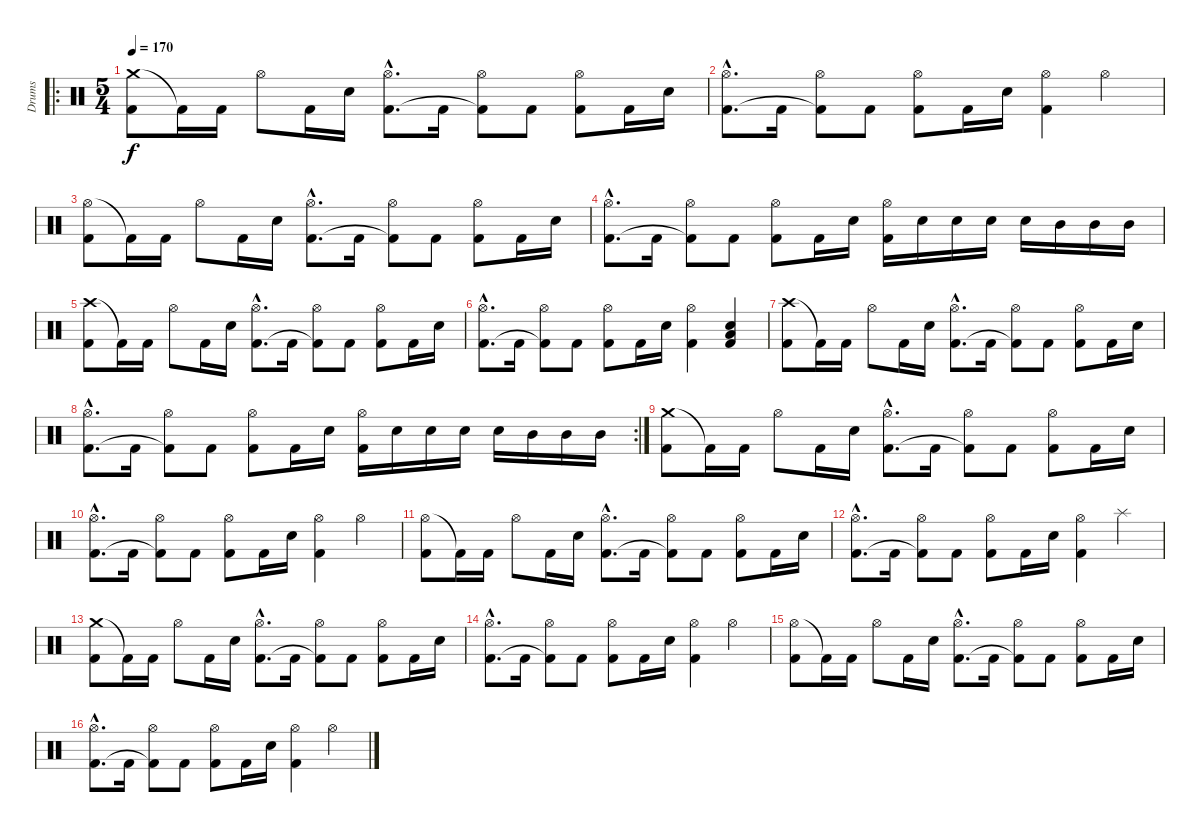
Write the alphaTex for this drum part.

\track ("Drums" "Drums") {instrument percussion}
\staff {score}
\articulation defaults
\ro
\ts (5 4)
\tempo 170
\clef neutral
\ks c
("Crash medium (hit)" "Kick (hit) 2").8{dy f} "Kick (hit) 2"{t}.16 "Kick (hit) 2".16 "Hi-Hat (open)".8 "Kick (hit) 2".16 "Electric Snare (hit)".16 ("Hi-Hat (open)"{hac} "Kick (hit) 2"{hac}).8{d} "Kick (hit) 2".16 ("Hi-Hat (open)" "Kick (hit) 2"{t}).8 "Kick (hit) 2".8 ("Hi-Hat (open)" "Kick (hit) 2").8 "Kick (hit) 2".16 "Electric Snare (hit)".16 |
("Hi-Hat (open)"{hac} "Kick (hit) 2"{hac}).8{d} "Kick (hit) 2".16 ("Hi-Hat (open)" "Kick (hit) 2"{t}).8 "Kick (hit) 2".8 ("Hi-Hat (open)" "Kick (hit) 2").8 "Kick (hit) 2".16 "Electric Snare (hit)".16 ("Hi-Hat (open)" "Kick (hit) 2").4 "Hi-Hat (open)".4 |
("Hi-Hat (open)" "Kick (hit) 2").8 "Kick (hit) 2"{t}.16 "Kick (hit) 2".16 "Hi-Hat (open)".8 "Kick (hit) 2".16 "Electric Snare (hit)".16 ("Hi-Hat (open)"{hac} "Kick (hit) 2"{hac}).8{d} "Kick (hit) 2".16 ("Hi-Hat (open)" "Kick (hit) 2"{t}).8 "Kick (hit) 2".8 ("Hi-Hat (open)" "Kick (hit) 2").8 "Kick (hit) 2".16 "Electric Snare (hit)".16 |
("Hi-Hat (open)"{hac} "Kick (hit) 2"{hac}).8{d} "Kick (hit) 2".16 ("Hi-Hat (open)" "Kick (hit) 2"{t}).8 "Kick (hit) 2".8 ("Hi-Hat (open)" "Kick (hit) 2").8 "Kick (hit) 2".16 "Electric Snare (hit)".16 ("Hi-Hat (open)" "Kick (hit) 2").16 "Electric Snare (hit)".16 "Electric Snare (hit)".16 "Electric Snare (hit)".16 "Electric Snare (hit)".16 "Mid Tom (hit)".16 "Mid Tom (hit)".16 "Mid Tom (hit)".16 |
("Crash high (hit)" "Kick (hit) 2").8 "Kick (hit) 2"{t}.16 "Kick (hit) 2".16 "Hi-Hat (open)".8 "Kick (hit) 2".16 "Electric Snare (hit)".16 ("Hi-Hat (open)"{hac} "Kick (hit) 2"{hac}).8{d} "Kick (hit) 2".16 ("Hi-Hat (open)" "Kick (hit) 2"{t}).8 "Kick (hit) 2".8 ("Hi-Hat (open)" "Kick (hit) 2").8 "Kick (hit) 2".16 "Electric Snare (hit)".16 |
("Hi-Hat (open)"{hac} "Kick (hit) 2"{hac}).8{d} "Kick (hit) 2".16 ("Hi-Hat (open)" "Kick (hit) 2"{t}).8 "Kick (hit) 2".8 ("Hi-Hat (open)" "Kick (hit) 2").8 "Kick (hit) 2".16 "Electric Snare (hit)".16 ("Hi-Hat (open)" "Kick (hit) 2").4 ("Low Floor Tom (hit)" "Electric Snare (hit)" "Kick (hit) 2").4 |
("Crash high (hit)" "Kick (hit) 2").8 "Kick (hit) 2"{t}.16 "Kick (hit) 2".16 "Hi-Hat (open)".8 "Kick (hit) 2".16 "Electric Snare (hit)".16 ("Hi-Hat (open)"{hac} "Kick (hit) 2"{hac}).8{d} "Kick (hit) 2".16 ("Hi-Hat (open)" "Kick (hit) 2"{t}).8 "Kick (hit) 2".8 ("Hi-Hat (open)" "Kick (hit) 2").8 "Kick (hit) 2".16 "Electric Snare (hit)".16 |
\rc 2
("Hi-Hat (open)"{hac} "Kick (hit) 2"{hac}).8{d} "Kick (hit) 2".16 ("Hi-Hat (open)" "Kick (hit) 2"{t}).8 "Kick (hit) 2".8 ("Hi-Hat (open)" "Kick (hit) 2").8 "Kick (hit) 2".16 "Electric Snare (hit)".16 ("Hi-Hat (open)" "Kick (hit) 2").16 "Electric Snare (hit)".16 "Electric Snare (hit)".16 "Electric Snare (hit)".16 "Electric Snare (hit)".16 "Mid Tom (hit)".16 "Mid Tom (hit)".16 "Mid Tom (hit)".16 |
("Crash medium (hit)" "Kick (hit) 2").8 "Kick (hit) 2"{t}.16 "Kick (hit) 2".16 "Hi-Hat (open)".8 "Kick (hit) 2".16 "Electric Snare (hit)".16 ("Hi-Hat (open)"{hac} "Kick (hit) 2"{hac}).8{d} "Kick (hit) 2".16 ("Hi-Hat (open)" "Kick (hit) 2"{t}).8 "Kick (hit) 2".8 ("Hi-Hat (open)" "Kick (hit) 2").8 "Kick (hit) 2".16 "Electric Snare (hit)".16 |
("Hi-Hat (open)"{hac} "Kick (hit) 2"{hac}).8{d} "Kick (hit) 2".16 ("Hi-Hat (open)" "Kick (hit) 2"{t}).8 "Kick (hit) 2".8 ("Hi-Hat (open)" "Kick (hit) 2").8 "Kick (hit) 2".16 "Electric Snare (hit)".16 ("Hi-Hat (open)" "Kick (hit) 2").4 "Hi-Hat (open)".4 |
("Hi-Hat (open)" "Kick (hit) 2").8 "Kick (hit) 2"{t}.16 "Kick (hit) 2".16 "Hi-Hat (open)".8 "Kick (hit) 2".16 "Electric Snare (hit)".16 ("Hi-Hat (open)"{hac} "Kick (hit) 2"{hac}).8{d} "Kick (hit) 2".16 ("Hi-Hat (open)" "Kick (hit) 2"{t}).8 "Kick (hit) 2".8 ("Hi-Hat (open)" "Kick (hit) 2").8 "Kick (hit) 2".16 "Electric Snare (hit)".16 |
("Hi-Hat (open)"{hac} "Kick (hit) 2"{hac}).8{d} "Kick (hit) 2".16 ("Hi-Hat (open)" "Kick (hit) 2"{t}).8 "Kick (hit) 2".8 ("Hi-Hat (open)" "Kick (hit) 2").8 "Kick (hit) 2".16 "Electric Snare (hit)".16 ("Hi-Hat (open)" "Kick (hit) 2").4 "Splash (hit)".4 |
("Crash medium (hit)" "Kick (hit) 2").8 "Kick (hit) 2"{t}.16 "Kick (hit) 2".16 "Hi-Hat (open)".8 "Kick (hit) 2".16 "Electric Snare (hit)".16 ("Hi-Hat (open)"{hac} "Kick (hit) 2"{hac}).8{d} "Kick (hit) 2".16 ("Hi-Hat (open)" "Kick (hit) 2"{t}).8 "Kick (hit) 2".8 ("Hi-Hat (open)" "Kick (hit) 2").8 "Kick (hit) 2".16 "Electric Snare (hit)".16 |
("Hi-Hat (open)"{hac} "Kick (hit) 2"{hac}).8{d} "Kick (hit) 2".16 ("Hi-Hat (open)" "Kick (hit) 2"{t}).8 "Kick (hit) 2".8 ("Hi-Hat (open)" "Kick (hit) 2").8 "Kick (hit) 2".16 "Electric Snare (hit)".16 ("Hi-Hat (open)" "Kick (hit) 2").4 "Hi-Hat (open)".4 |
("Hi-Hat (open)" "Kick (hit) 2").8 "Kick (hit) 2"{t}.16 "Kick (hit) 2".16 "Hi-Hat (open)".8 "Kick (hit) 2".16 "Electric Snare (hit)".16 ("Hi-Hat (open)"{hac} "Kick (hit) 2"{hac}).8{d} "Kick (hit) 2".16 ("Hi-Hat (open)" "Kick (hit) 2"{t}).8 "Kick (hit) 2".8 ("Hi-Hat (open)" "Kick (hit) 2").8 "Kick (hit) 2".16 "Electric Snare (hit)".16 |
("Hi-Hat (open)"{hac} "Kick (hit) 2"{hac}).8{d} "Kick (hit) 2".16 ("Hi-Hat (open)" "Kick (hit) 2"{t}).8 "Kick (hit) 2".8 ("Hi-Hat (open)" "Kick (hit) 2").8 "Kick (hit) 2".16 "Electric Snare (hit)".16 ("Hi-Hat (open)" "Kick (hit) 2").4 "Hi-Hat (open)".4
